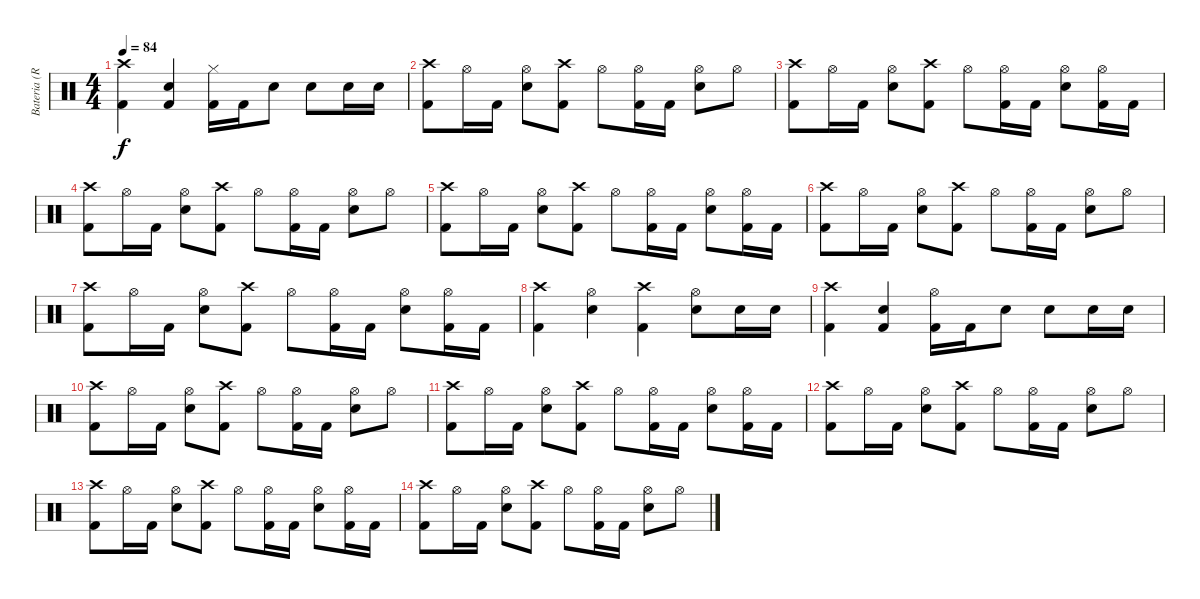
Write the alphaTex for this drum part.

\track ("Bateria (Robert Sweet)" "Bateria (R") {instrument percussion}
\staff {score}
\articulation defaults
\ts (4 4)
\tempo 84
\clef neutral
\ks c
("Crash high (hit)" "Kick (hit) 2").4{dy f} ("Electric Snare (hit)" "Kick (hit) 2").4 ("Hi-Hat (closed)" "Kick (hit) 2").16 "Kick (hit) 2".16 "Electric Snare (hit)".8 "Electric Snare (hit)".8 "Electric Snare (hit)".16 "Electric Snare (hit)".16 |
("Crash high (hit)" "Kick (hit) 2").8 "Hi-Hat (open)".16 "Kick (hit) 2".16 ("Electric Snare (hit)" "Hi-Hat (open)").8 ("Crash high (hit)" "Kick (hit) 2").8 "Hi-Hat (open)".8 ("Hi-Hat (open)" "Kick (hit) 2").16 "Kick (hit) 2".16 ("Electric Snare (hit)" "Hi-Hat (open)").8 "Hi-Hat (open)".8 |
("Crash high (hit)" "Kick (hit) 2").8 "Hi-Hat (open)".16 "Kick (hit) 2".16 ("Electric Snare (hit)" "Hi-Hat (open)").8 ("Crash high (hit)" "Kick (hit) 2").8 "Hi-Hat (open)".8 ("Hi-Hat (open)" "Kick (hit) 2").16 "Kick (hit) 2".16 ("Electric Snare (hit)" "Hi-Hat (open)").8 ("Hi-Hat (open)" "Kick (hit) 2").16 "Kick (hit) 2".16 |
("Crash high (hit)" "Kick (hit) 2").8 "Hi-Hat (open)".16 "Kick (hit) 2".16 ("Electric Snare (hit)" "Hi-Hat (open)").8 ("Crash high (hit)" "Kick (hit) 2").8 "Hi-Hat (open)".8 ("Hi-Hat (open)" "Kick (hit) 2").16 "Kick (hit) 2".16 ("Electric Snare (hit)" "Hi-Hat (open)").8 "Hi-Hat (open)".8 |
("Crash high (hit)" "Kick (hit) 2").8 "Hi-Hat (open)".16 "Kick (hit) 2".16 ("Electric Snare (hit)" "Hi-Hat (open)").8 ("Crash high (hit)" "Kick (hit) 2").8 "Hi-Hat (open)".8 ("Hi-Hat (open)" "Kick (hit) 2").16 "Kick (hit) 2".16 ("Electric Snare (hit)" "Hi-Hat (open)").8 ("Hi-Hat (open)" "Kick (hit) 2").16 "Kick (hit) 2".16 |
("Crash high (hit)" "Kick (hit) 2").8 "Hi-Hat (open)".16 "Kick (hit) 2".16 ("Electric Snare (hit)" "Hi-Hat (open)").8 ("Crash high (hit)" "Kick (hit) 2").8 "Hi-Hat (open)".8 ("Hi-Hat (open)" "Kick (hit) 2").16 "Kick (hit) 2".16 ("Electric Snare (hit)" "Hi-Hat (open)").8 "Hi-Hat (open)".8 |
("Crash high (hit)" "Kick (hit) 2").8 "Hi-Hat (open)".16 "Kick (hit) 2".16 ("Electric Snare (hit)" "Hi-Hat (open)").8 ("Crash high (hit)" "Kick (hit) 2").8 "Hi-Hat (open)".8 ("Hi-Hat (open)" "Kick (hit) 2").16 "Kick (hit) 2".16 ("Electric Snare (hit)" "Hi-Hat (open)").8 ("Hi-Hat (open)" "Kick (hit) 2").16 "Kick (hit) 2".16 |
("Crash high (hit)" "Kick (hit) 2").4 ("Electric Snare (hit)" "Hi-Hat (open)").4 ("Crash high (hit)" "Kick (hit) 2").4 ("Electric Snare (hit)" "Hi-Hat (open)").8 "Electric Snare (hit)".16 "Electric Snare (hit)".16 |
("Crash high (hit)" "Kick (hit) 2").4 ("Electric Snare (hit)" "Kick (hit) 2").4 ("Hi-Hat (open)" "Kick (hit) 2").16 "Kick (hit) 2".16 "Electric Snare (hit)".8 "Electric Snare (hit)".8 "Electric Snare (hit)".16 "Electric Snare (hit)".16 |
("Crash high (hit)" "Kick (hit) 2").8 "Hi-Hat (open)".16 "Kick (hit) 2".16 ("Electric Snare (hit)" "Hi-Hat (open)").8 ("Crash high (hit)" "Kick (hit) 2").8 "Hi-Hat (open)".8 ("Hi-Hat (open)" "Kick (hit) 2").16 "Kick (hit) 2".16 ("Electric Snare (hit)" "Hi-Hat (open)").8 "Hi-Hat (open)".8 |
("Crash high (hit)" "Kick (hit) 2").8 "Hi-Hat (open)".16 "Kick (hit) 2".16 ("Electric Snare (hit)" "Hi-Hat (open)").8 ("Crash high (hit)" "Kick (hit) 2").8 "Hi-Hat (open)".8 ("Hi-Hat (open)" "Kick (hit) 2").16 "Kick (hit) 2".16 ("Electric Snare (hit)" "Hi-Hat (open)").8 ("Hi-Hat (open)" "Kick (hit) 2").16 "Kick (hit) 2".16 |
("Crash high (hit)" "Kick (hit) 2").8 "Hi-Hat (open)".16 "Kick (hit) 2".16 ("Electric Snare (hit)" "Hi-Hat (open)").8 ("Crash high (hit)" "Kick (hit) 2").8 "Hi-Hat (open)".8 ("Hi-Hat (open)" "Kick (hit) 2").16 "Kick (hit) 2".16 ("Electric Snare (hit)" "Hi-Hat (open)").8 "Hi-Hat (open)".8 |
("Crash high (hit)" "Kick (hit) 2").8 "Hi-Hat (open)".16 "Kick (hit) 2".16 ("Electric Snare (hit)" "Hi-Hat (open)").8 ("Crash high (hit)" "Kick (hit) 2").8 "Hi-Hat (open)".8 ("Hi-Hat (open)" "Kick (hit) 2").16 "Kick (hit) 2".16 ("Electric Snare (hit)" "Hi-Hat (open)").8 ("Hi-Hat (open)" "Kick (hit) 2").16 "Kick (hit) 2".16 |
("Crash high (hit)" "Kick (hit) 2").8 "Hi-Hat (open)".16 "Kick (hit) 2".16 ("Electric Snare (hit)" "Hi-Hat (open)").8 ("Crash high (hit)" "Kick (hit) 2").8 "Hi-Hat (open)".8 ("Hi-Hat (open)" "Kick (hit) 2").16 "Kick (hit) 2".16 ("Electric Snare (hit)" "Hi-Hat (open)").8 "Hi-Hat (open)".8
